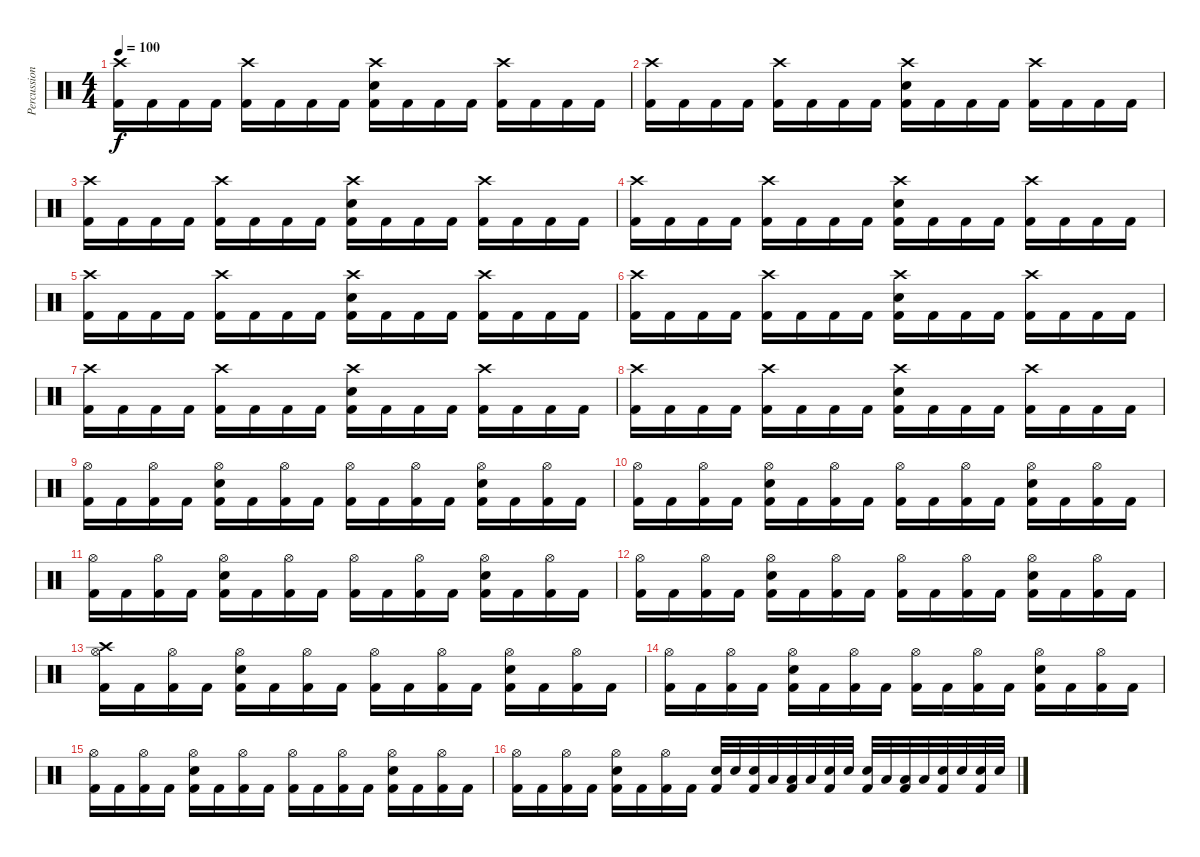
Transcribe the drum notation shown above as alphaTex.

\track ("Percussion" "Percussion") {instrument percussion}
\staff {score}
\articulation defaults
\ts (4 4)
\tempo 100
\clef neutral
\ks c
("Crash high (hit)" "Kick (hit) 2").16{dy f} "Kick (hit) 2".16 "Kick (hit) 2".16 "Kick (hit) 2".16 ("Crash high (hit)" "Kick (hit) 2").16 "Kick (hit) 2".16 "Kick (hit) 2".16 "Kick (hit) 2".16 ("Electric Snare (hit)" "Crash high (hit)" "Kick (hit) 2").16 "Kick (hit) 2".16 "Kick (hit) 2".16 "Kick (hit) 2".16 ("Crash high (hit)" "Kick (hit) 2").16 "Kick (hit) 2".16 "Kick (hit) 2".16 "Kick (hit) 2".16 |
("Crash high (hit)" "Kick (hit) 2").16 "Kick (hit) 2".16 "Kick (hit) 2".16 "Kick (hit) 2".16 ("Crash high (hit)" "Kick (hit) 2").16 "Kick (hit) 2".16 "Kick (hit) 2".16 "Kick (hit) 2".16 ("Electric Snare (hit)" "Crash high (hit)" "Kick (hit) 2").16 "Kick (hit) 2".16 "Kick (hit) 2".16 "Kick (hit) 2".16 ("Crash high (hit)" "Kick (hit) 2").16 "Kick (hit) 2".16 "Kick (hit) 2".16 "Kick (hit) 2".16 |
("Crash high (hit)" "Kick (hit) 2").16 "Kick (hit) 2".16 "Kick (hit) 2".16 "Kick (hit) 2".16 ("Crash high (hit)" "Kick (hit) 2").16 "Kick (hit) 2".16 "Kick (hit) 2".16 "Kick (hit) 2".16 ("Electric Snare (hit)" "Crash high (hit)" "Kick (hit) 2").16 "Kick (hit) 2".16 "Kick (hit) 2".16 "Kick (hit) 2".16 ("Crash high (hit)" "Kick (hit) 2").16 "Kick (hit) 2".16 "Kick (hit) 2".16 "Kick (hit) 2".16 |
("Crash high (hit)" "Kick (hit) 2").16 "Kick (hit) 2".16 "Kick (hit) 2".16 "Kick (hit) 2".16 ("Crash high (hit)" "Kick (hit) 2").16 "Kick (hit) 2".16 "Kick (hit) 2".16 "Kick (hit) 2".16 ("Electric Snare (hit)" "Crash high (hit)" "Kick (hit) 2").16 "Kick (hit) 2".16 "Kick (hit) 2".16 "Kick (hit) 2".16 ("Crash high (hit)" "Kick (hit) 2").16 "Kick (hit) 2".16 "Kick (hit) 2".16 "Kick (hit) 2".16 |
("Crash high (hit)" "Kick (hit) 2").16 "Kick (hit) 2".16 "Kick (hit) 2".16 "Kick (hit) 2".16 ("Crash high (hit)" "Kick (hit) 2").16 "Kick (hit) 2".16 "Kick (hit) 2".16 "Kick (hit) 2".16 ("Electric Snare (hit)" "Crash high (hit)" "Kick (hit) 2").16 "Kick (hit) 2".16 "Kick (hit) 2".16 "Kick (hit) 2".16 ("Crash high (hit)" "Kick (hit) 2").16 "Kick (hit) 2".16 "Kick (hit) 2".16 "Kick (hit) 2".16 |
("Crash high (hit)" "Kick (hit) 2").16 "Kick (hit) 2".16 "Kick (hit) 2".16 "Kick (hit) 2".16 ("Crash high (hit)" "Kick (hit) 2").16 "Kick (hit) 2".16 "Kick (hit) 2".16 "Kick (hit) 2".16 ("Electric Snare (hit)" "Crash high (hit)" "Kick (hit) 2").16 "Kick (hit) 2".16 "Kick (hit) 2".16 "Kick (hit) 2".16 ("Crash high (hit)" "Kick (hit) 2").16 "Kick (hit) 2".16 "Kick (hit) 2".16 "Kick (hit) 2".16 |
("Crash high (hit)" "Kick (hit) 2").16 "Kick (hit) 2".16 "Kick (hit) 2".16 "Kick (hit) 2".16 ("Crash high (hit)" "Kick (hit) 2").16 "Kick (hit) 2".16 "Kick (hit) 2".16 "Kick (hit) 2".16 ("Electric Snare (hit)" "Crash high (hit)" "Kick (hit) 2").16 "Kick (hit) 2".16 "Kick (hit) 2".16 "Kick (hit) 2".16 ("Crash high (hit)" "Kick (hit) 2").16 "Kick (hit) 2".16 "Kick (hit) 2".16 "Kick (hit) 2".16 |
("Crash high (hit)" "Kick (hit) 2").16 "Kick (hit) 2".16 "Kick (hit) 2".16 "Kick (hit) 2".16 ("Crash high (hit)" "Kick (hit) 2").16 "Kick (hit) 2".16 "Kick (hit) 2".16 "Kick (hit) 2".16 ("Electric Snare (hit)" "Crash high (hit)" "Kick (hit) 2").16 "Kick (hit) 2".16 "Kick (hit) 2".16 "Kick (hit) 2".16 ("Crash high (hit)" "Kick (hit) 2").16 "Kick (hit) 2".16 "Kick (hit) 2".16 "Kick (hit) 2".16 |
("Hi-Hat (open)" "Kick (hit) 2").16 "Kick (hit) 2".16 ("Hi-Hat (open)" "Kick (hit) 2").16 "Kick (hit) 2".16 ("Electric Snare (hit)" "Hi-Hat (open)" "Kick (hit) 2").16 "Kick (hit) 2".16 ("Hi-Hat (open)" "Kick (hit) 2").16 "Kick (hit) 2".16 ("Hi-Hat (open)" "Kick (hit) 2").16 "Kick (hit) 2".16 ("Hi-Hat (open)" "Kick (hit) 2").16 "Kick (hit) 2".16 ("Electric Snare (hit)" "Hi-Hat (open)" "Kick (hit) 2").16 "Kick (hit) 2".16 ("Hi-Hat (open)" "Kick (hit) 2").16 "Kick (hit) 2".16 |
("Hi-Hat (open)" "Kick (hit) 2").16 "Kick (hit) 2".16 ("Hi-Hat (open)" "Kick (hit) 2").16 "Kick (hit) 2".16 ("Electric Snare (hit)" "Hi-Hat (open)" "Kick (hit) 2").16 "Kick (hit) 2".16 ("Hi-Hat (open)" "Kick (hit) 2").16 "Kick (hit) 2".16 ("Hi-Hat (open)" "Kick (hit) 2").16 "Kick (hit) 2".16 ("Hi-Hat (open)" "Kick (hit) 2").16 "Kick (hit) 2".16 ("Electric Snare (hit)" "Hi-Hat (open)" "Kick (hit) 2").16 "Kick (hit) 2".16 ("Hi-Hat (open)" "Kick (hit) 2").16 "Kick (hit) 2".16 |
("Hi-Hat (open)" "Kick (hit) 2").16 "Kick (hit) 2".16 ("Hi-Hat (open)" "Kick (hit) 2").16 "Kick (hit) 2".16 ("Electric Snare (hit)" "Hi-Hat (open)" "Kick (hit) 2").16 "Kick (hit) 2".16 ("Hi-Hat (open)" "Kick (hit) 2").16 "Kick (hit) 2".16 ("Hi-Hat (open)" "Kick (hit) 2").16 "Kick (hit) 2".16 ("Hi-Hat (open)" "Kick (hit) 2").16 "Kick (hit) 2".16 ("Electric Snare (hit)" "Hi-Hat (open)" "Kick (hit) 2").16 "Kick (hit) 2".16 ("Hi-Hat (open)" "Kick (hit) 2").16 "Kick (hit) 2".16 |
("Hi-Hat (open)" "Kick (hit) 2").16 "Kick (hit) 2".16 ("Hi-Hat (open)" "Kick (hit) 2").16 "Kick (hit) 2".16 ("Electric Snare (hit)" "Hi-Hat (open)" "Kick (hit) 2").16 "Kick (hit) 2".16 ("Hi-Hat (open)" "Kick (hit) 2").16 "Kick (hit) 2".16 ("Hi-Hat (open)" "Kick (hit) 2").16 "Kick (hit) 2".16 ("Hi-Hat (open)" "Kick (hit) 2").16 "Kick (hit) 2".16 ("Electric Snare (hit)" "Hi-Hat (open)" "Kick (hit) 2").16 "Kick (hit) 2".16 ("Hi-Hat (open)" "Kick (hit) 2").16 "Kick (hit) 2".16 |
("Crash high (hit)" "Hi-Hat (open)" "Kick (hit) 2").16 "Kick (hit) 2".16 ("Hi-Hat (open)" "Kick (hit) 2").16 "Kick (hit) 2".16 ("Electric Snare (hit)" "Hi-Hat (open)" "Kick (hit) 2").16 "Kick (hit) 2".16 ("Hi-Hat (open)" "Kick (hit) 2").16 "Kick (hit) 2".16 ("Hi-Hat (open)" "Kick (hit) 2").16 "Kick (hit) 2".16 ("Hi-Hat (open)" "Kick (hit) 2").16 "Kick (hit) 2".16 ("Electric Snare (hit)" "Hi-Hat (open)" "Kick (hit) 2").16 "Kick (hit) 2".16 ("Hi-Hat (open)" "Kick (hit) 2").16 "Kick (hit) 2".16 |
("Hi-Hat (open)" "Kick (hit) 2").16 "Kick (hit) 2".16 ("Hi-Hat (open)" "Kick (hit) 2").16 "Kick (hit) 2".16 ("Electric Snare (hit)" "Hi-Hat (open)" "Kick (hit) 2").16 "Kick (hit) 2".16 ("Hi-Hat (open)" "Kick (hit) 2").16 "Kick (hit) 2".16 ("Hi-Hat (open)" "Kick (hit) 2").16 "Kick (hit) 2".16 ("Hi-Hat (open)" "Kick (hit) 2").16 "Kick (hit) 2".16 ("Electric Snare (hit)" "Hi-Hat (open)" "Kick (hit) 2").16 "Kick (hit) 2".16 ("Hi-Hat (open)" "Kick (hit) 2").16 "Kick (hit) 2".16 |
("Hi-Hat (open)" "Kick (hit) 2").16 "Kick (hit) 2".16 ("Hi-Hat (open)" "Kick (hit) 2").16 "Kick (hit) 2".16 ("Electric Snare (hit)" "Hi-Hat (open)" "Kick (hit) 2").16 "Kick (hit) 2".16 ("Hi-Hat (open)" "Kick (hit) 2").16 "Kick (hit) 2".16 ("Hi-Hat (open)" "Kick (hit) 2").16 "Kick (hit) 2".16 ("Hi-Hat (open)" "Kick (hit) 2").16 "Kick (hit) 2".16 ("Electric Snare (hit)" "Hi-Hat (open)" "Kick (hit) 2").16 "Kick (hit) 2".16 ("Hi-Hat (open)" "Kick (hit) 2").16 "Kick (hit) 2".16 |
("Hi-Hat (open)" "Kick (hit) 2").16 "Kick (hit) 2".16 ("Hi-Hat (open)" "Kick (hit) 2").16 "Kick (hit) 2".16 ("Electric Snare (hit)" "Hi-Hat (open)" "Kick (hit) 2").16 "Kick (hit) 2".16 ("Hi-Hat (open)" "Kick (hit) 2").16 "Kick (hit) 2".16 ("Electric Snare (hit)" "Kick (hit) 2").32 "Electric Snare (hit)".32 ("Electric Snare (hit)" "Kick (hit) 2").32 "Low Tom (hit)".32 ("Low Tom (hit)" "Kick (hit) 2").32 "Low Tom (hit)".32 ("Electric Snare (hit)" "Kick (hit) 2").32 "Electric Snare (hit)".32 ("Electric Snare (hit)" "Kick (hit) 2").32 "Low Tom (hit)".32 ("Low Tom (hit)" "Kick (hit) 2").32 "Low Tom (hit)".32 ("Electric Snare (hit)" "Kick (hit) 2").32 "Electric Snare (hit)".32 ("Electric Snare (hit)" "Kick (hit) 2").32 "Electric Snare (hit)".32
